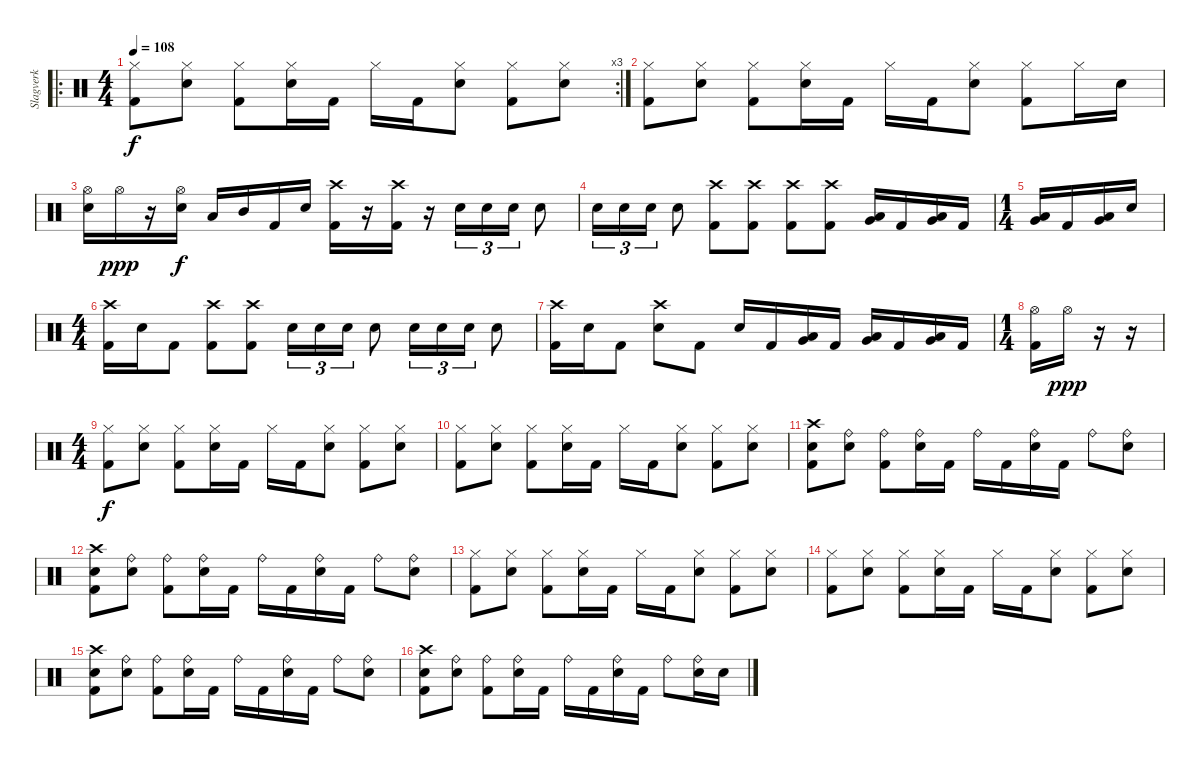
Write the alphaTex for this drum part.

\track ("Slagverk" "Slagverk") {instrument percussion}
\staff {score}
\articulation defaults
\ro
\rc 3
\ts (4 4)
\tempo 108
\clef neutral
\ks c
("Hi-Hat (closed)" "Kick (hit) 2").8{dy f} ("Hi-Hat (closed)" "Electric Snare (hit)").8 ("Hi-Hat (closed)" "Kick (hit) 2").8 ("Hi-Hat (closed)" "Electric Snare (hit)").16 "Kick (hit) 2".16 "Hi-Hat (closed)".16 "Kick (hit) 2".16 ("Hi-Hat (closed)" "Electric Snare (hit)").8 ("Hi-Hat (closed)" "Kick (hit) 2").8 ("Hi-Hat (closed)" "Electric Snare (hit)").8 |
("Hi-Hat (closed)" "Kick (hit) 2").8 ("Hi-Hat (closed)" "Electric Snare (hit)").8 ("Hi-Hat (closed)" "Kick (hit) 2").8 ("Hi-Hat (closed)" "Electric Snare (hit)").16 "Kick (hit) 2".16 "Hi-Hat (closed)".16 "Kick (hit) 2".16 ("Hi-Hat (closed)" "Electric Snare (hit)").8 ("Hi-Hat (closed)" "Kick (hit) 2").8 "Hi-Hat (closed)".16 "Electric Snare (hit)".16 |
("Hi-Hat (open)" "Electric Snare (hit)").16 "Hi-Hat (open)".16{dy ppp} r.16 ("Hi-Hat (open)" "Electric Snare (hit)").16{dy f} "Low Tom (hit)".16 "Mid Tom (hit)".16 "Kick (hit) 2".16 "Electric Snare (hit)".16 ("Crash high (hit)" "Kick (hit) 2").16 r.16 ("Crash high (hit)" "Kick (hit) 2").16 r.16 "Electric Snare (hit)".16{tu (3 2)} "Electric Snare (hit)".16{tu (3 2)} "Electric Snare (hit)".16{tu (3 2)} "Electric Snare (hit)".8 |
"Electric Snare (hit)".16{tu (3 2)} "Electric Snare (hit)".16{tu (3 2)} "Electric Snare (hit)".16{tu (3 2)} "Electric Snare (hit)".8 ("Crash high (hit)" "Kick (hit) 2").8 ("Crash high (hit)" "Kick (hit) 2").8 ("Crash high (hit)" "Kick (hit) 2").8 ("Crash high (hit)" "Kick (hit) 2").8 ("Very Low Tom (hit)" "Low Tom (hit)").16 "Kick (hit) 2".16 ("Very Low Tom (hit)" "Low Tom (hit)").16 "Kick (hit) 2".16 |
\ts (1 4)
("Very Low Tom (hit)" "Low Tom (hit)").16 "Kick (hit) 2".16 ("Very Low Tom (hit)" "Low Tom (hit)").16 "Electric Snare (hit)".16 |
\ts (4 4)
("Crash high (hit)" "Kick (hit) 2").16 "Electric Snare (hit)".16 "Kick (hit) 2".8 ("Crash high (hit)" "Kick (hit) 2").8 ("Crash high (hit)" "Kick (hit) 2").8 "Electric Snare (hit)".16{tu (3 2)} "Electric Snare (hit)".16{tu (3 2)} "Electric Snare (hit)".16{tu (3 2)} "Electric Snare (hit)".8 "Electric Snare (hit)".16{tu (3 2)} "Electric Snare (hit)".16{tu (3 2)} "Electric Snare (hit)".16{tu (3 2)} "Electric Snare (hit)".8 |
("Kick (hit) 2" "Crash high (hit)").16 "Electric Snare (hit)".16 "Kick (hit) 2".8 ("Electric Snare (hit)" "Crash high (hit)").8 "Kick (hit) 2".8 "Electric Snare (hit)".16 "Kick (hit) 2".16 ("Low Tom (hit)" "Very Low Tom (hit)").16 "Kick (hit) 2".16 ("Low Tom (hit)" "Very Low Tom (hit)").16 "Kick (hit) 2".16 ("Low Tom (hit)" "Very Low Tom (hit)").16 "Kick (hit) 2".16 |
\ts (1 4)
("Hi-Hat (open)" "Kick (hit) 2").16 "Hi-Hat (open)".16{dy ppp} r.16 r.16 |
\ts (4 4)
("Hi-Hat (closed)" "Kick (hit) 2").8{dy f} ("Hi-Hat (closed)" "Electric Snare (hit)").8 ("Hi-Hat (closed)" "Kick (hit) 2").8 ("Hi-Hat (closed)" "Electric Snare (hit)").16 "Kick (hit) 2".16 "Hi-Hat (closed)".16 "Kick (hit) 2".16 ("Hi-Hat (closed)" "Electric Snare (hit)").8 ("Hi-Hat (closed)" "Kick (hit) 2").8 ("Hi-Hat (closed)" "Electric Snare (hit)").8 |
("Hi-Hat (closed)" "Kick (hit) 2").8 ("Hi-Hat (closed)" "Electric Snare (hit)").8 ("Hi-Hat (closed)" "Kick (hit) 2").8 ("Hi-Hat (closed)" "Electric Snare (hit)").16 "Kick (hit) 2".16 "Hi-Hat (closed)".16 "Kick (hit) 2".16 ("Hi-Hat (closed)" "Electric Snare (hit)").8 ("Hi-Hat (closed)" "Kick (hit) 2").8 ("Hi-Hat (closed)" "Electric Snare (hit)").8 |
("Crash high (hit)" "Kick (hit) 2" "Snare (hit)").8 ("Ride (bell)" "Electric Snare (hit)").8 ("Ride (bell)" "Kick (hit) 2").8 ("Ride (bell)" "Electric Snare (hit)").16 "Kick (hit) 2".16 "Ride (bell)".16 "Kick (hit) 2".16 ("Ride (bell)" "Electric Snare (hit)").16 "Kick (hit) 2".16 "Ride (bell)".8 ("Ride (bell)" "Electric Snare (hit)").8 |
("Crash high (hit)" "Kick (hit) 2" "Snare (hit)").8 ("Ride (bell)" "Electric Snare (hit)").8 ("Ride (bell)" "Kick (hit) 2").8 ("Ride (bell)" "Electric Snare (hit)").16 "Kick (hit) 2".16 "Ride (bell)".16 "Kick (hit) 2".16 ("Ride (bell)" "Electric Snare (hit)").16 "Kick (hit) 2".16 "Ride (bell)".8 ("Ride (bell)" "Electric Snare (hit)").8 |
("Hi-Hat (closed)" "Kick (hit) 2").8 ("Hi-Hat (closed)" "Electric Snare (hit)").8 ("Hi-Hat (closed)" "Kick (hit) 2").8 ("Hi-Hat (closed)" "Electric Snare (hit)").16 "Kick (hit) 2".16 "Hi-Hat (closed)".16 "Kick (hit) 2".16 ("Hi-Hat (closed)" "Electric Snare (hit)").8 ("Hi-Hat (closed)" "Kick (hit) 2").8 ("Hi-Hat (closed)" "Electric Snare (hit)").8 |
("Hi-Hat (closed)" "Kick (hit) 2").8 ("Hi-Hat (closed)" "Electric Snare (hit)").8 ("Hi-Hat (closed)" "Kick (hit) 2").8 ("Hi-Hat (closed)" "Electric Snare (hit)").16 "Kick (hit) 2".16 "Hi-Hat (closed)".16 "Kick (hit) 2".16 ("Hi-Hat (closed)" "Electric Snare (hit)").8 ("Hi-Hat (closed)" "Kick (hit) 2").8 ("Hi-Hat (closed)" "Electric Snare (hit)").8 |
("Crash high (hit)" "Kick (hit) 2" "Snare (hit)").8 ("Ride (bell)" "Electric Snare (hit)").8 ("Ride (bell)" "Kick (hit) 2").8 ("Ride (bell)" "Electric Snare (hit)").16 "Kick (hit) 2".16 "Ride (bell)".16 "Kick (hit) 2".16 ("Ride (bell)" "Electric Snare (hit)").16 "Kick (hit) 2".16 "Ride (bell)".8 ("Ride (bell)" "Electric Snare (hit)").8 |
("Crash high (hit)" "Kick (hit) 2" "Snare (hit)").8 ("Ride (bell)" "Electric Snare (hit)").8 ("Ride (bell)" "Kick (hit) 2").8 ("Ride (bell)" "Electric Snare (hit)").16 "Kick (hit) 2".16 "Ride (bell)".16 "Kick (hit) 2".16 ("Ride (bell)" "Electric Snare (hit)").16 "Kick (hit) 2".16 "Ride (bell)".8 ("Ride (bell)" "Electric Snare (hit)").16 "Electric Snare (hit)".16
